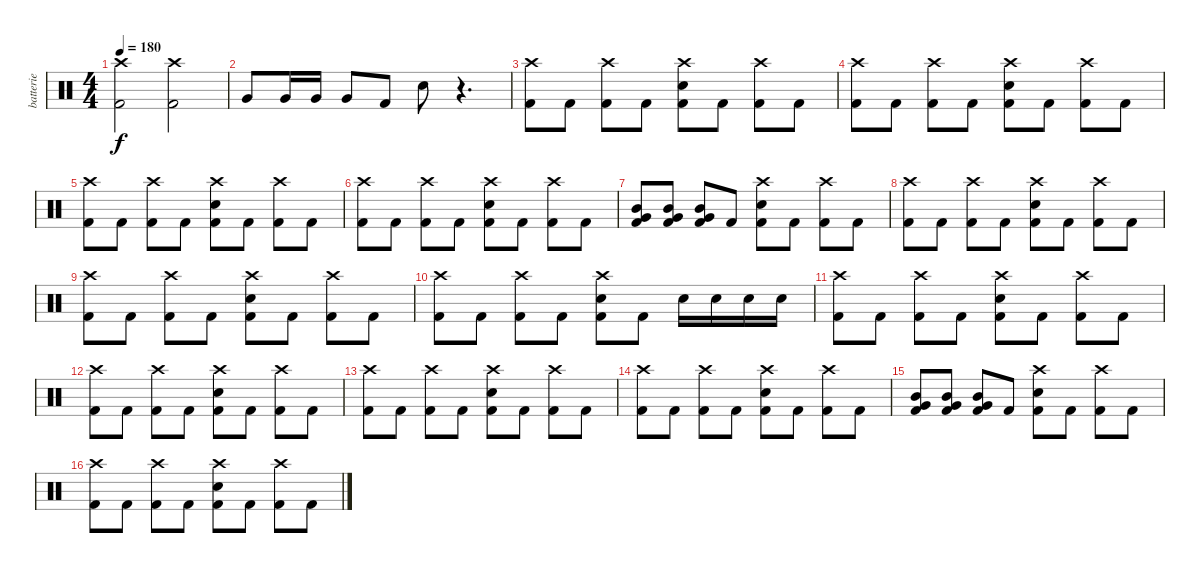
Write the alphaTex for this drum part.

\track ("batterie" "batterie") {instrument percussion}
\staff {score}
\articulation defaults
\ts (4 4)
\tempo 180
\clef neutral
\ks c
("Crash high (hit)" "Kick (hit) 2").2{dy f} ("Crash high (hit)" "Kick (hit) 2").2 |
"Very Low Tom (hit)".8 "Very Low Tom (hit)".16 "Very Low Tom (hit)".16 "Very Low Tom (hit)".8 "Kick (hit) 2".8 "Electric Snare (hit)".8 r.4{d} |
("Crash high (hit)" "Kick (hit) 2").8 "Kick (hit) 2".8 ("Crash high (hit)" "Kick (hit) 2").8 "Kick (hit) 2".8 ("Crash high (hit)" "Electric Snare (hit)" "Kick (hit) 2").8 "Kick (hit) 2".8 ("Crash high (hit)" "Kick (hit) 2").8 "Kick (hit) 2".8 |
("Crash high (hit)" "Kick (hit) 2").8 "Kick (hit) 2".8 ("Crash high (hit)" "Kick (hit) 2").8 "Kick (hit) 2".8 ("Crash high (hit)" "Electric Snare (hit)" "Kick (hit) 2").8 "Kick (hit) 2".8 ("Crash high (hit)" "Kick (hit) 2").8 "Kick (hit) 2".8 |
("Crash high (hit)" "Kick (hit) 2").8 "Kick (hit) 2".8 ("Crash high (hit)" "Kick (hit) 2").8 "Kick (hit) 2".8 ("Crash high (hit)" "Electric Snare (hit)" "Kick (hit) 2").8 "Kick (hit) 2".8 ("Crash high (hit)" "Kick (hit) 2").8 "Kick (hit) 2".8 |
("Crash high (hit)" "Kick (hit) 2").8 "Kick (hit) 2".8 ("Crash high (hit)" "Kick (hit) 2").8 "Kick (hit) 2".8 ("Crash high (hit)" "Electric Snare (hit)" "Kick (hit) 2").8 "Kick (hit) 2".8 ("Crash high (hit)" "Kick (hit) 2").8 "Kick (hit) 2".8 |
("Mid Tom (hit)" "Very Low Tom (hit)" "Kick (hit) 2").8 ("Mid Tom (hit)" "Very Low Tom (hit)" "Kick (hit) 2").8 ("Mid Tom (hit)" "Very Low Tom (hit)" "Kick (hit) 2").8 "Kick (hit) 2".8 ("Crash high (hit)" "Electric Snare (hit)" "Kick (hit) 2").8 "Kick (hit) 2".8 ("Crash high (hit)" "Kick (hit) 2").8 "Kick (hit) 2".8 |
("Crash high (hit)" "Kick (hit) 2").8 "Kick (hit) 2".8 ("Crash high (hit)" "Kick (hit) 2").8 "Kick (hit) 2".8 ("Crash high (hit)" "Electric Snare (hit)" "Kick (hit) 2").8 "Kick (hit) 2".8 ("Crash high (hit)" "Kick (hit) 2").8 "Kick (hit) 2".8 |
("Crash high (hit)" "Kick (hit) 2").8 "Kick (hit) 2".8 ("Crash high (hit)" "Kick (hit) 2").8 "Kick (hit) 2".8 ("Crash high (hit)" "Electric Snare (hit)" "Kick (hit) 2").8 "Kick (hit) 2".8 ("Crash high (hit)" "Kick (hit) 2").8 "Kick (hit) 2".8 |
("Crash high (hit)" "Kick (hit) 2").8 "Kick (hit) 2".8 ("Crash high (hit)" "Kick (hit) 2").8 "Kick (hit) 2".8 ("Crash high (hit)" "Electric Snare (hit)" "Kick (hit) 2").8 "Kick (hit) 2".8 "Electric Snare (hit)".16 "Electric Snare (hit)".16 "Electric Snare (hit)".16 "Electric Snare (hit)".16 |
("Crash high (hit)" "Kick (hit) 2").8 "Kick (hit) 2".8 ("Crash high (hit)" "Kick (hit) 2").8 "Kick (hit) 2".8 ("Crash high (hit)" "Electric Snare (hit)" "Kick (hit) 2").8 "Kick (hit) 2".8 ("Crash high (hit)" "Kick (hit) 2").8 "Kick (hit) 2".8 |
("Crash high (hit)" "Kick (hit) 2").8 "Kick (hit) 2".8 ("Crash high (hit)" "Kick (hit) 2").8 "Kick (hit) 2".8 ("Crash high (hit)" "Electric Snare (hit)" "Kick (hit) 2").8 "Kick (hit) 2".8 ("Crash high (hit)" "Kick (hit) 2").8 "Kick (hit) 2".8 |
("Crash high (hit)" "Kick (hit) 2").8 "Kick (hit) 2".8 ("Crash high (hit)" "Kick (hit) 2").8 "Kick (hit) 2".8 ("Crash high (hit)" "Electric Snare (hit)" "Kick (hit) 2").8 "Kick (hit) 2".8 ("Crash high (hit)" "Kick (hit) 2").8 "Kick (hit) 2".8 |
("Crash high (hit)" "Kick (hit) 2").8 "Kick (hit) 2".8 ("Crash high (hit)" "Kick (hit) 2").8 "Kick (hit) 2".8 ("Crash high (hit)" "Electric Snare (hit)" "Kick (hit) 2").8 "Kick (hit) 2".8 ("Crash high (hit)" "Kick (hit) 2").8 "Kick (hit) 2".8 |
("Mid Tom (hit)" "Very Low Tom (hit)" "Kick (hit) 2").8 ("Mid Tom (hit)" "Very Low Tom (hit)" "Kick (hit) 2").8 ("Mid Tom (hit)" "Very Low Tom (hit)" "Kick (hit) 2").8 "Kick (hit) 2".8 ("Crash high (hit)" "Electric Snare (hit)" "Kick (hit) 2").8 "Kick (hit) 2".8 ("Crash high (hit)" "Kick (hit) 2").8 "Kick (hit) 2".8 |
("Crash high (hit)" "Kick (hit) 2").8 "Kick (hit) 2".8 ("Crash high (hit)" "Kick (hit) 2").8 "Kick (hit) 2".8 ("Crash high (hit)" "Electric Snare (hit)" "Kick (hit) 2").8 "Kick (hit) 2".8 ("Crash high (hit)" "Kick (hit) 2").8 "Kick (hit) 2".8
